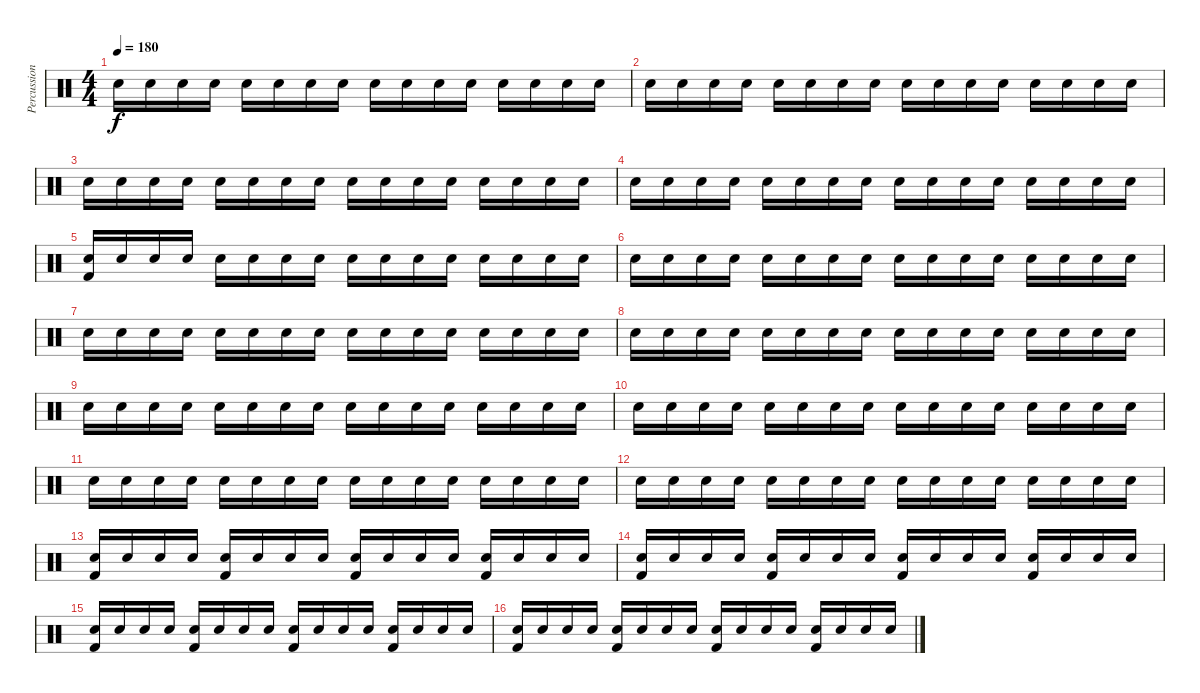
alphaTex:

\track ("Percussion" "Percussion") {instrument percussion}
\staff {score}
\articulation defaults
\ts (4 4)
\tempo 180
\clef neutral
\ks c "Snare (hit) 2".16{dy f} "Snare (hit) 2".16 "Snare (hit) 2".16 "Snare (hit) 2".16 "Snare (hit) 2".16 "Snare (hit) 2".16 "Snare (hit) 2".16 "Snare (hit) 2".16 "Snare (hit) 2".16 "Snare (hit) 2".16 "Snare (hit) 2".16 "Snare (hit) 2".16 "Snare (hit) 2".16 "Snare (hit) 2".16 "Snare (hit) 2".16 "Snare (hit) 2".16
|
"Snare (hit) 2".16 "Snare (hit) 2".16 "Snare (hit) 2".16 "Snare (hit) 2".16 "Snare (hit) 2".16 "Snare (hit) 2".16 "Snare (hit) 2".16 "Snare (hit) 2".16 "Snare (hit) 2".16 "Snare (hit) 2".16 "Snare (hit) 2".16 "Snare (hit) 2".16 "Snare (hit) 2".16 "Snare (hit) 2".16 "Snare (hit) 2".16 "Snare (hit) 2".16 |
"Snare (hit) 2".16 "Snare (hit) 2".16 "Snare (hit) 2".16 "Snare (hit) 2".16 "Snare (hit) 2".16 "Snare (hit) 2".16 "Snare (hit) 2".16 "Snare (hit) 2".16 "Snare (hit) 2".16 "Snare (hit) 2".16 "Snare (hit) 2".16 "Snare (hit) 2".16 "Snare (hit) 2".16 "Snare (hit) 2".16 "Snare (hit) 2".16 "Snare (hit) 2".16 |
"Snare (hit) 2".16 "Snare (hit) 2".16 "Snare (hit) 2".16 "Snare (hit) 2".16 "Snare (hit) 2".16 "Snare (hit) 2".16 "Snare (hit) 2".16 "Snare (hit) 2".16 "Snare (hit) 2".16{volume 6} "Snare (hit) 2".16{volume 6} "Snare (hit) 2".16{volume 7} "Snare (hit) 2".16{volume 8} "Snare (hit) 2".16{volume 10} "Snare (hit) 2".16{volume 11} "Snare (hit) 2".16{volume 11} "Snare (hit) 2".16{volume 13} |
("Kick (hit) 2" "Snare (hit) 2").16{volume 13} "Snare (hit) 2".16{volume 5} "Snare (hit) 2".16 "Snare (hit) 2".16 "Snare (hit) 2".16 "Snare (hit) 2".16 "Snare (hit) 2".16 "Snare (hit) 2".16 "Snare (hit) 2".16 "Snare (hit) 2".16 "Snare (hit) 2".16 "Snare (hit) 2".16 "Snare (hit) 2".16 "Snare (hit) 2".16 "Snare (hit) 2".16 "Snare (hit) 2".16 |
"Snare (hit) 2".16 "Snare (hit) 2".16 "Snare (hit) 2".16 "Snare (hit) 2".16 "Snare (hit) 2".16 "Snare (hit) 2".16 "Snare (hit) 2".16 "Snare (hit) 2".16 "Snare (hit) 2".16 "Snare (hit) 2".16 "Snare (hit) 2".16 "Snare (hit) 2".16 "Snare (hit) 2".16 "Snare (hit) 2".16 "Snare (hit) 2".16 "Snare (hit) 2".16 |
"Snare (hit) 2".16 "Snare (hit) 2".16 "Snare (hit) 2".16 "Snare (hit) 2".16 "Snare (hit) 2".16 "Snare (hit) 2".16 "Snare (hit) 2".16 "Snare (hit) 2".16 "Snare (hit) 2".16 "Snare (hit) 2".16 "Snare (hit) 2".16 "Snare (hit) 2".16 "Snare (hit) 2".16 "Snare (hit) 2".16 "Snare (hit) 2".16 "Snare (hit) 2".16 |
"Snare (hit) 2".16 "Snare (hit) 2".16 "Snare (hit) 2".16 "Snare (hit) 2".16 "Snare (hit) 2".16 "Snare (hit) 2".16 "Snare (hit) 2".16 "Snare (hit) 2".16 "Snare (hit) 2".16 "Snare (hit) 2".16 "Snare (hit) 2".16 "Snare (hit) 2".16 "Snare (hit) 2".16 "Snare (hit) 2".16 "Snare (hit) 2".16 "Snare (hit) 2".16 |
"Snare (hit) 2".16 "Snare (hit) 2".16 "Snare (hit) 2".16 "Snare (hit) 2".16 "Snare (hit) 2".16 "Snare (hit) 2".16 "Snare (hit) 2".16 "Snare (hit) 2".16 "Snare (hit) 2".16 "Snare (hit) 2".16 "Snare (hit) 2".16 "Snare (hit) 2".16 "Snare (hit) 2".16 "Snare (hit) 2".16 "Snare (hit) 2".16 "Snare (hit) 2".16 |
"Snare (hit) 2".16 "Snare (hit) 2".16 "Snare (hit) 2".16 "Snare (hit) 2".16 "Snare (hit) 2".16 "Snare (hit) 2".16 "Snare (hit) 2".16 "Snare (hit) 2".16 "Snare (hit) 2".16 "Snare (hit) 2".16 "Snare (hit) 2".16 "Snare (hit) 2".16 "Snare (hit) 2".16 "Snare (hit) 2".16 "Snare (hit) 2".16 "Snare (hit) 2".16 |
"Snare (hit) 2".16 "Snare (hit) 2".16 "Snare (hit) 2".16 "Snare (hit) 2".16 "Snare (hit) 2".16 "Snare (hit) 2".16 "Snare (hit) 2".16 "Snare (hit) 2".16 "Snare (hit) 2".16 "Snare (hit) 2".16 "Snare (hit) 2".16 "Snare (hit) 2".16 "Snare (hit) 2".16 "Snare (hit) 2".16 "Snare (hit) 2".16 "Snare (hit) 2".16 |
"Snare (hit) 2".16 "Snare (hit) 2".16 "Snare (hit) 2".16 "Snare (hit) 2".16 "Snare (hit) 2".16 "Snare (hit) 2".16 "Snare (hit) 2".16 "Snare (hit) 2".16 "Snare (hit) 2".16{volume 6} "Snare (hit) 2".16{volume 7} "Snare (hit) 2".16{volume 8} "Snare (hit) 2".16{volume 9} "Snare (hit) 2".16{volume 10} "Snare (hit) 2".16{volume 11} "Snare (hit) 2".16{volume 12} "Snare (hit) 2".16{volume 13} |
("Kick (hit) 2" "Snare (hit) 2").16{volume 13} "Snare (hit) 2".16{volume 5} "Snare (hit) 2".16 "Snare (hit) 2".16 ("Kick (hit) 2" "Snare (hit) 2").16 "Snare (hit) 2".16 "Snare (hit) 2".16 "Snare (hit) 2".16 ("Kick (hit) 2" "Snare (hit) 2").16 "Snare (hit) 2".16 "Snare (hit) 2".16 "Snare (hit) 2".16 ("Kick (hit) 2" "Snare (hit) 2").16 "Snare (hit) 2".16 "Snare (hit) 2".16 "Snare (hit) 2".16 |
("Kick (hit) 2" "Snare (hit) 2").16 "Snare (hit) 2".16 "Snare (hit) 2".16 "Snare (hit) 2".16 ("Kick (hit) 2" "Snare (hit) 2").16 "Snare (hit) 2".16 "Snare (hit) 2".16 "Snare (hit) 2".16 ("Kick (hit) 2" "Snare (hit) 2").16 "Snare (hit) 2".16 "Snare (hit) 2".16{volume 13} "Snare (hit) 2".16{volume 5} ("Kick (hit) 2" "Snare (hit) 2").16 "Snare (hit) 2".16 "Snare (hit) 2".16{volume 13} "Snare (hit) 2".16{volume 5} |
("Kick (hit) 2" "Snare (hit) 2").16{volume 13} "Snare (hit) 2".16{volume 5} "Snare (hit) 2".16 "Snare (hit) 2".16 ("Kick (hit) 2" "Snare (hit) 2").16 "Snare (hit) 2".16 "Snare (hit) 2".16 "Snare (hit) 2".16 ("Kick (hit) 2" "Snare (hit) 2").16 "Snare (hit) 2".16 "Snare (hit) 2".16 "Snare (hit) 2".16 ("Kick (hit) 2" "Snare (hit) 2").16 "Snare (hit) 2".16 "Snare (hit) 2".16 "Snare (hit) 2".16 |
("Kick (hit) 2" "Snare (hit) 2").16 "Snare (hit) 2".16 "Snare (hit) 2".16 "Snare (hit) 2".16 ("Kick (hit) 2" "Snare (hit) 2").16 "Snare (hit) 2".16 "Snare (hit) 2".16 "Snare (hit) 2".16 ("Kick (hit) 2" "Snare (hit) 2").16 "Snare (hit) 2".16 "Snare (hit) 2".16{volume 13} "Snare (hit) 2".16{volume 5} ("Kick (hit) 2" "Snare (hit) 2").16 "Snare (hit) 2".16 "Snare (hit) 2".16{volume 13} "Snare (hit) 2".16{volume 5}
